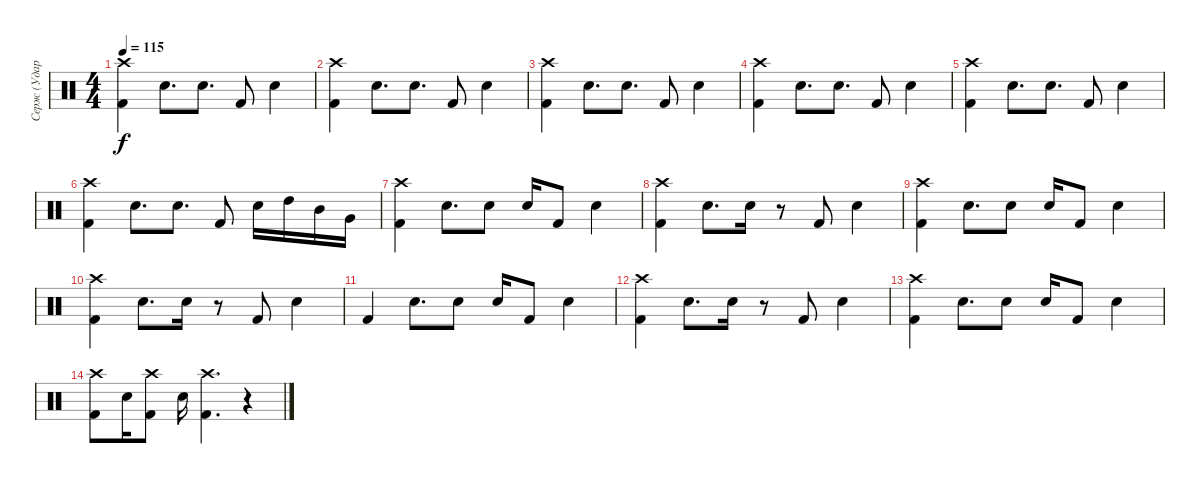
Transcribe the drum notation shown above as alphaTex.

\track ("Серж (Ударные)" "Серж (Удар") {instrument percussion}
\staff {score}
\articulation defaults
\ts (4 4)
\tempo 115
\clef neutral
\ks c
("Kick (hit) 2" "Crash high (hit)").4{dy f} "Snare (hit) 2".8{d} "Snare (hit) 2".8{d} "Kick (hit) 2".8 "Snare (hit) 2".4 |
("Kick (hit) 2" "Crash high (hit)").4 "Snare (hit) 2".8{d} "Snare (hit) 2".8{d} "Kick (hit) 2".8 "Snare (hit) 2".4 |
("Kick (hit) 2" "Crash high (hit)").4 "Snare (hit) 2".8{d} "Snare (hit) 2".8{d} "Kick (hit) 2".8 "Snare (hit) 2".4 |
("Kick (hit) 2" "Crash high (hit)").4 "Snare (hit) 2".8{d} "Snare (hit) 2".8{d} "Kick (hit) 2".8 "Snare (hit) 2".4 |
("Kick (hit) 2" "Crash high (hit)").4 "Snare (hit) 2".8{d} "Snare (hit) 2".8{d} "Kick (hit) 2".8 "Snare (hit) 2".4 |
("Kick (hit) 2" "Crash high (hit)").4 "Snare (hit) 2".8{d} "Snare (hit) 2".8{d} "Kick (hit) 2".8 "Snare (hit) 2".16 "High Tom (hit)".16 "Mid Tom (hit)".16 "Very Low Tom (hit)".16 |
("Kick (hit) 2" "Crash high (hit)").4 "Snare (hit) 2".8{d} "Snare (hit) 2".8 "Snare (hit) 2".16 "Kick (hit) 2".8 "Snare (hit) 2".4 |
("Kick (hit) 2" "Crash high (hit)").4 "Snare (hit) 2".8{d} "Snare (hit) 2".16 r.8 "Kick (hit) 2".8 "Snare (hit) 2".4 |
("Kick (hit) 2" "Crash high (hit)").4 "Snare (hit) 2".8{d} "Snare (hit) 2".8 "Snare (hit) 2".16 "Kick (hit) 2".8 "Snare (hit) 2".4 |
("Kick (hit) 2" "Crash high (hit)").4 "Snare (hit) 2".8{d} "Snare (hit) 2".16 r.8 "Kick (hit) 2".8 "Snare (hit) 2".4 |
"Kick (hit) 2".4 "Snare (hit) 2".8{d} "Snare (hit) 2".8 "Snare (hit) 2".16 "Kick (hit) 2".8 "Snare (hit) 2".4 |
("Kick (hit) 2" "Crash high (hit)").4 "Snare (hit) 2".8{d} "Snare (hit) 2".16 r.8 "Kick (hit) 2".8 "Snare (hit) 2".4 |
("Kick (hit) 2" "Crash high (hit)").4 "Snare (hit) 2".8{d} "Snare (hit) 2".8 "Snare (hit) 2".16 "Kick (hit) 2".8 "Snare (hit) 2".4 |
("Kick (hit) 2" "Crash high (hit)").8 "Snare (hit) 2".16 ("Kick (hit) 2" "Crash high (hit)").8 "Snare (hit) 2".16 ("Kick (hit) 2" "Crash high (hit)").4{d} r.4
